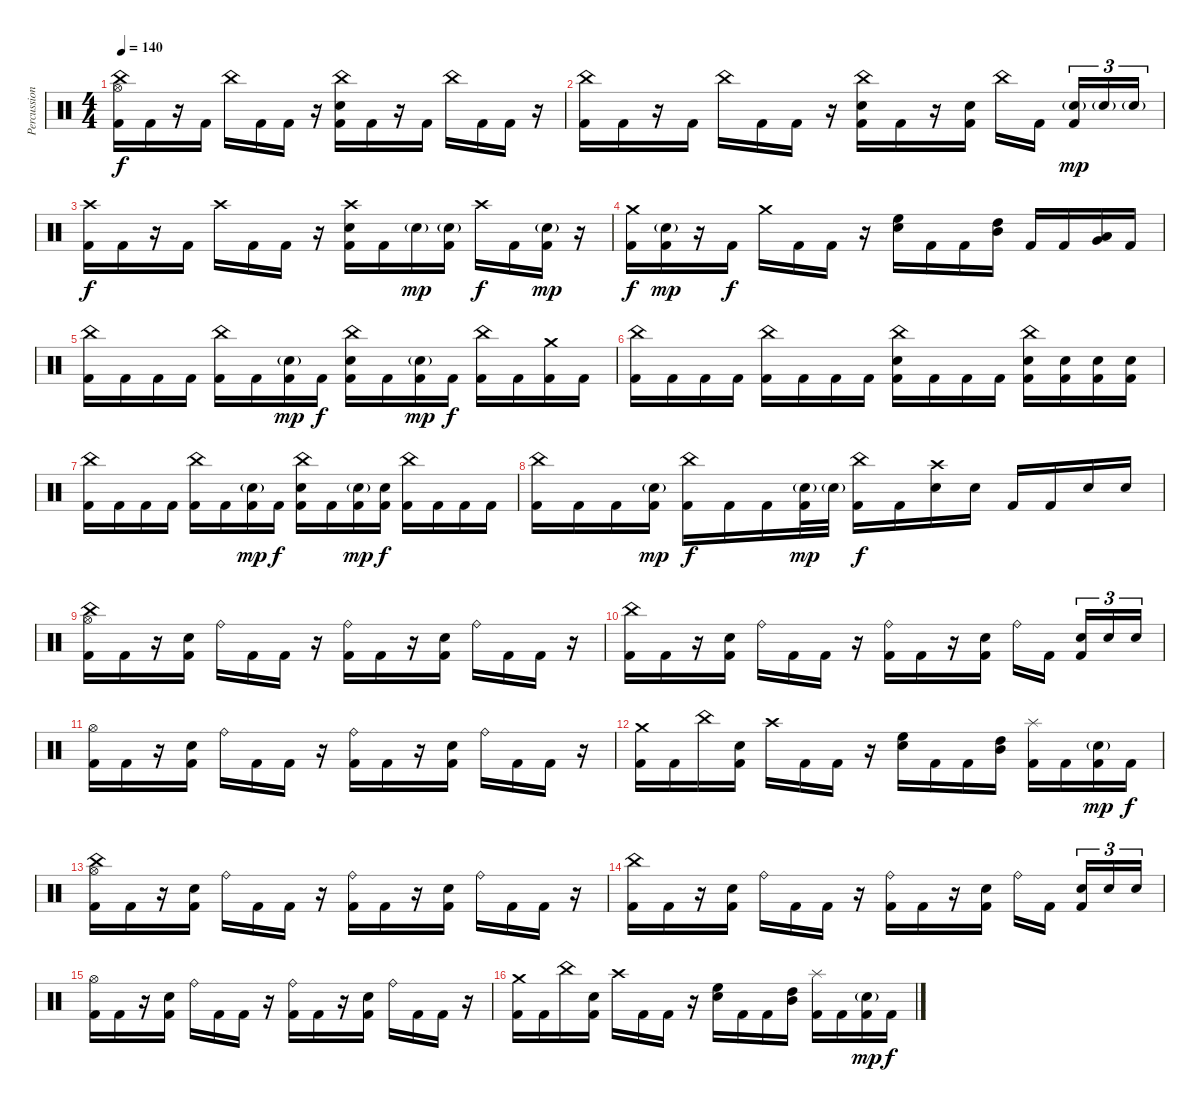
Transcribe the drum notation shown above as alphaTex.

\track ("Percussion" "Percussion") {instrument percussion}
\staff {score}
\articulation defaults
\ts (4 4)
\tempo 140
\clef neutral
\ks c
("Hi-Hat (open)" "China (hit)" "Kick (hit) 2").16{dy f} "Kick (hit) 2".16 r.16 "Kick (hit) 2".16 "China (hit)".16 "Kick (hit) 2".16 "Kick (hit) 2".16 r.16 ("China (hit)" "Electric Snare (hit)" "Kick (hit) 2").16 "Kick (hit) 2".16 r.16 "Kick (hit) 2".16 "China (hit)".16 "Kick (hit) 2".16 "Kick (hit) 2".16 r.16 |
("China (hit)" "Kick (hit) 2").16 "Kick (hit) 2".16 r.16 "Kick (hit) 2".16 "China (hit)".16 "Kick (hit) 2".16 "Kick (hit) 2".16 r.16 ("China (hit)" "Electric Snare (hit)" "Kick (hit) 2").16 "Kick (hit) 2".16 r.16 ("Electric Snare (hit)" "Kick (hit) 2").16 "China (hit)".16 "Kick (hit) 2".16{beam splitsecondary} ("Electric Snare (hit)"{g} "Kick (hit) 2").16{tu (3 2) dy mp} "Electric Snare (hit)"{g}.16{tu (3 2)} "Electric Snare (hit)"{g}.16{tu (3 2)} |
("Crash high (hit)" "Kick (hit) 2").16{dy f} "Kick (hit) 2".16 r.16 "Kick (hit) 2".16 "Crash high (hit)".16 "Kick (hit) 2".16 "Kick (hit) 2".16 r.16 ("Crash high (hit)" "Electric Snare (hit)" "Kick (hit) 2").16 "Kick (hit) 2".16 "Electric Snare (hit)"{g}.16{dy mp} ("Electric Snare (hit)"{g} "Kick (hit) 2").16 "Crash high (hit)".16{dy f} "Kick (hit) 2".16 ("Electric Snare (hit)"{g} "Kick (hit) 2").16{dy mp} r.16 |
("Crash medium (hit)" "Kick (hit) 2").16{dy f} ("Electric Snare (hit)"{g} "Kick (hit) 2").16{dy mp} r.16 "Kick (hit) 2".16{dy f} "Crash medium (hit)".16 "Kick (hit) 2".16 "Kick (hit) 2".16 r.16 ("Electric Snare (hit)" "High Floor Tom (hit)").16{bu 120} "Kick (hit) 2".16 "Kick (hit) 2".16 ("High Tom (hit)" "Mid Tom (hit)").16{bu 120} "Kick (hit) 2".16 "Kick (hit) 2".16 ("Low Tom (hit)" "Very Low Tom (hit)").16{bu 120} "Kick (hit) 2".16 |
("China (hit)" "Kick (hit) 2").16 "Kick (hit) 2".16 "Kick (hit) 2".16 "Kick (hit) 2".16 ("China (hit)" "Kick (hit) 2").16 "Kick (hit) 2".16 ("Electric Snare (hit)"{g} "Kick (hit) 2").16{dy mp} "Kick (hit) 2".16{dy f} ("China (hit)" "Electric Snare (hit)" "Kick (hit) 2").16 "Kick (hit) 2".16 ("Electric Snare (hit)"{g} "Kick (hit) 2").16{dy mp} "Kick (hit) 2".16{dy f} ("China (hit)" "Kick (hit) 2").16 "Kick (hit) 2".16 ("Crash medium (hit)" "Kick (hit) 2").16 "Kick (hit) 2".16 |
("China (hit)" "Kick (hit) 2").16 "Kick (hit) 2".16 "Kick (hit) 2".16 "Kick (hit) 2".16 ("China (hit)" "Kick (hit) 2").16 "Kick (hit) 2".16 "Kick (hit) 2".16 "Kick (hit) 2".16 ("China (hit)" "Electric Snare (hit)" "Kick (hit) 2").16 "Kick (hit) 2".16 "Kick (hit) 2".16 "Kick (hit) 2".16 ("China (hit)" "Electric Snare (hit)" "Kick (hit) 2").16 ("Electric Snare (hit)" "Kick (hit) 2").16 ("Electric Snare (hit)" "Kick (hit) 2").16 ("Electric Snare (hit)" "Kick (hit) 2").16 |
("China (hit)" "Kick (hit) 2").16 "Kick (hit) 2".16 "Kick (hit) 2".16 "Kick (hit) 2".16 ("China (hit)" "Kick (hit) 2").16 "Kick (hit) 2".16 ("Electric Snare (hit)"{g} "Kick (hit) 2").16{dy mp} "Kick (hit) 2".16{dy f} ("China (hit)" "Electric Snare (hit)" "Kick (hit) 2").16 "Kick (hit) 2".16 ("Electric Snare (hit)"{g} "Kick (hit) 2").16{dy mp} ("Electric Snare (hit)" "Kick (hit) 2").16{dy f} ("China (hit)" "Kick (hit) 2").16 "Kick (hit) 2".16 "Kick (hit) 2".16 "Kick (hit) 2".16 |
("China (hit)" "Kick (hit) 2").16 "Kick (hit) 2".16 "Kick (hit) 2".16 ("Electric Snare (hit)"{g} "Kick (hit) 2").16{dy mp} ("China (hit)" "Kick (hit) 2").16{dy f} "Kick (hit) 2".16 "Kick (hit) 2".16 ("Electric Snare (hit)"{g} "Kick (hit) 2").32{dy mp} "Electric Snare (hit)"{g}.32 ("China (hit)" "Kick (hit) 2").16{dy f} "Kick (hit) 2".16 ("Crash high (hit)" "Electric Snare (hit)").16 "Electric Snare (hit)".16 "Kick (hit) 2".16 "Kick (hit) 2".16 "Electric Snare (hit)".16 "Electric Snare (hit)".16 |
("Hi-Hat (open)" "China (hit)" "Kick (hit) 2").16 "Kick (hit) 2".16 r.16 ("Electric Snare (hit)" "Kick (hit) 2").16 "Ride (bell)".16 "Kick (hit) 2".16 "Kick (hit) 2".16 r.16 ("Ride (bell)" "Kick (hit) 2").16 "Kick (hit) 2".16 r.16 ("Electric Snare (hit)" "Kick (hit) 2").16 "Ride (bell)".16 "Kick (hit) 2".16 "Kick (hit) 2".16 r.16 |
("China (hit)" "Kick (hit) 2").16 "Kick (hit) 2".16 r.16 ("Electric Snare (hit)" "Kick (hit) 2").16 "Ride (bell)".16 "Kick (hit) 2".16 "Kick (hit) 2".16 r.16 ("Ride (bell)" "Kick (hit) 2").16 "Kick (hit) 2".16 r.16 ("Electric Snare (hit)" "Kick (hit) 2").16 "Ride (bell)".16 "Kick (hit) 2".16{beam splitsecondary} ("Electric Snare (hit)" "Kick (hit) 2").16{tu (3 2)} "Electric Snare (hit)".16{tu (3 2)} "Electric Snare (hit)".16{tu (3 2)} |
("Hi-Hat (open)" "Kick (hit) 2").16 "Kick (hit) 2".16 r.16 ("Electric Snare (hit)" "Kick (hit) 2").16 "Ride (bell)".16 "Kick (hit) 2".16 "Kick (hit) 2".16 r.16 ("Ride (bell)" "Kick (hit) 2").16 "Kick (hit) 2".16 r.16 ("Electric Snare (hit)" "Kick (hit) 2").16 "Ride (bell)".16 "Kick (hit) 2".16 "Kick (hit) 2".16 r.16 |
("Crash medium (hit)" "Kick (hit) 2").16 "Kick (hit) 2".16 "China (hit)".16 ("Electric Snare (hit)" "Kick (hit) 2").16 "Crash high (hit)".16 "Kick (hit) 2".16 "Kick (hit) 2".16 r.16 ("Electric Snare (hit)" "High Floor Tom (hit)").16{bu 120} "Kick (hit) 2".16 "Kick (hit) 2".16 ("High Tom (hit)" "Mid Tom (hit)").16{bu 120} ("Splash (hit)" "Kick (hit) 2").16 "Kick (hit) 2".16 ("Electric Snare (hit)"{g} "Kick (hit) 2").16{dy mp} "Kick (hit) 2".16{dy f} |
("Hi-Hat (open)" "China (hit)" "Kick (hit) 2").16 "Kick (hit) 2".16 r.16 ("Electric Snare (hit)" "Kick (hit) 2").16 "Ride (bell)".16 "Kick (hit) 2".16 "Kick (hit) 2".16 r.16 ("Ride (bell)" "Kick (hit) 2").16 "Kick (hit) 2".16 r.16 ("Electric Snare (hit)" "Kick (hit) 2").16 "Ride (bell)".16 "Kick (hit) 2".16 "Kick (hit) 2".16 r.16 |
("China (hit)" "Kick (hit) 2").16 "Kick (hit) 2".16 r.16 ("Electric Snare (hit)" "Kick (hit) 2").16 "Ride (bell)".16 "Kick (hit) 2".16 "Kick (hit) 2".16 r.16 ("Ride (bell)" "Kick (hit) 2").16 "Kick (hit) 2".16 r.16 ("Electric Snare (hit)" "Kick (hit) 2").16 "Ride (bell)".16 "Kick (hit) 2".16{beam splitsecondary} ("Electric Snare (hit)" "Kick (hit) 2").16{tu (3 2)} "Electric Snare (hit)".16{tu (3 2)} "Electric Snare (hit)".16{tu (3 2)} |
("Hi-Hat (open)" "Kick (hit) 2").16 "Kick (hit) 2".16 r.16 ("Electric Snare (hit)" "Kick (hit) 2").16 "Ride (bell)".16 "Kick (hit) 2".16 "Kick (hit) 2".16 r.16 ("Ride (bell)" "Kick (hit) 2").16 "Kick (hit) 2".16 r.16 ("Electric Snare (hit)" "Kick (hit) 2").16 "Ride (bell)".16 "Kick (hit) 2".16 "Kick (hit) 2".16 r.16 |
("Crash medium (hit)" "Kick (hit) 2").16 "Kick (hit) 2".16 "China (hit)".16 ("Electric Snare (hit)" "Kick (hit) 2").16 "Crash high (hit)".16 "Kick (hit) 2".16 "Kick (hit) 2".16 r.16 ("Electric Snare (hit)" "High Floor Tom (hit)").16{bu 120} "Kick (hit) 2".16 "Kick (hit) 2".16 ("High Tom (hit)" "Mid Tom (hit)").16{bu 120} ("Splash (hit)" "Kick (hit) 2").16 "Kick (hit) 2".16 ("Electric Snare (hit)"{g} "Kick (hit) 2").16{dy mp} "Kick (hit) 2".16{dy f}
